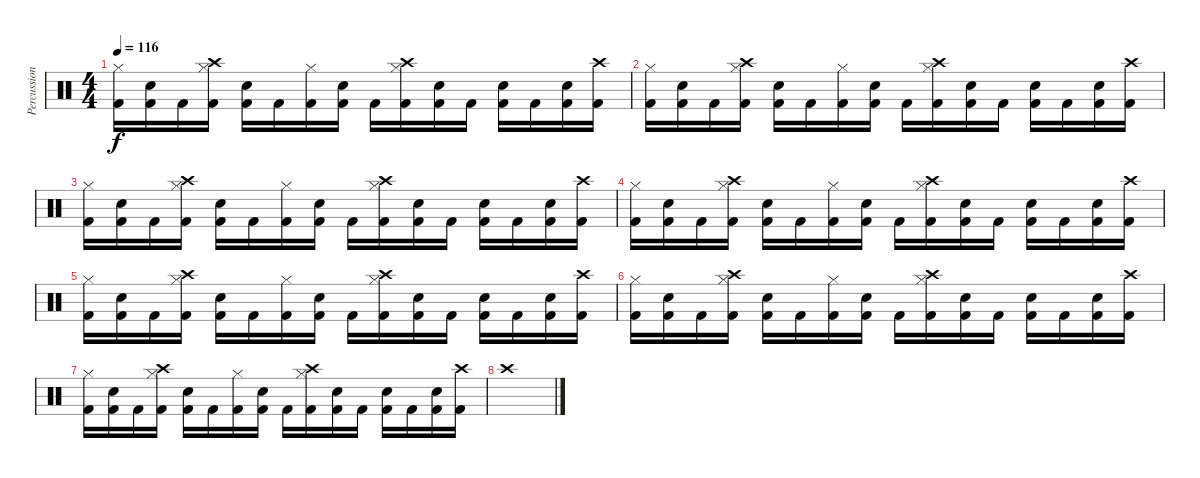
\track ("Percussion" "Percussion") {instrument percussion}
\staff {score}
\articulation defaults
\ts (4 4)
\tempo 116
\clef neutral
\ks c
("Hi-Hat (closed)" "Kick (hit) 2").16{dy f} ("Electric Snare (hit)" "Kick (hit) 2").16 "Kick (hit) 2".16 ("Crash high (hit)" "Hi-Hat (closed)" "Kick (hit) 2").16 ("Electric Snare (hit)" "Kick (hit) 2").16 "Kick (hit) 2".16 ("Hi-Hat (closed)" "Kick (hit) 2").16 ("Electric Snare (hit)" "Kick (hit) 2").16 "Kick (hit) 2".16 ("Crash high (hit)" "Hi-Hat (closed)" "Kick (hit) 2").16 ("Electric Snare (hit)" "Kick (hit) 2").16 "Kick (hit) 2".16 ("Electric Snare (hit)" "Kick (hit) 2").16 "Kick (hit) 2".16 ("Electric Snare (hit)" "Kick (hit) 2").16 ("Crash high (hit)" "Kick (hit) 2").16 |
("Hi-Hat (closed)" "Kick (hit) 2").16 ("Electric Snare (hit)" "Kick (hit) 2").16 "Kick (hit) 2".16 ("Crash high (hit)" "Hi-Hat (closed)" "Kick (hit) 2").16 ("Electric Snare (hit)" "Kick (hit) 2").16 "Kick (hit) 2".16 ("Hi-Hat (closed)" "Kick (hit) 2").16 ("Electric Snare (hit)" "Kick (hit) 2").16 "Kick (hit) 2".16 ("Crash high (hit)" "Hi-Hat (closed)" "Kick (hit) 2").16 ("Electric Snare (hit)" "Kick (hit) 2").16 "Kick (hit) 2".16 ("Electric Snare (hit)" "Kick (hit) 2").16 "Kick (hit) 2".16 ("Electric Snare (hit)" "Kick (hit) 2").16 ("Crash high (hit)" "Kick (hit) 2").16 |
("Hi-Hat (closed)" "Kick (hit) 2").16 ("Electric Snare (hit)" "Kick (hit) 2").16 "Kick (hit) 2".16 ("Crash high (hit)" "Hi-Hat (closed)" "Kick (hit) 2").16 ("Electric Snare (hit)" "Kick (hit) 2").16 "Kick (hit) 2".16 ("Hi-Hat (closed)" "Kick (hit) 2").16 ("Electric Snare (hit)" "Kick (hit) 2").16 "Kick (hit) 2".16 ("Crash high (hit)" "Hi-Hat (closed)" "Kick (hit) 2").16 ("Electric Snare (hit)" "Kick (hit) 2").16 "Kick (hit) 2".16 ("Electric Snare (hit)" "Kick (hit) 2").16 "Kick (hit) 2".16 ("Electric Snare (hit)" "Kick (hit) 2").16 ("Crash high (hit)" "Kick (hit) 2").16 |
("Hi-Hat (closed)" "Kick (hit) 2").16 ("Electric Snare (hit)" "Kick (hit) 2").16 "Kick (hit) 2".16 ("Crash high (hit)" "Hi-Hat (closed)" "Kick (hit) 2").16 ("Electric Snare (hit)" "Kick (hit) 2").16 "Kick (hit) 2".16 ("Hi-Hat (closed)" "Kick (hit) 2").16 ("Electric Snare (hit)" "Kick (hit) 2").16 "Kick (hit) 2".16 ("Crash high (hit)" "Hi-Hat (closed)" "Kick (hit) 2").16 ("Electric Snare (hit)" "Kick (hit) 2").16 "Kick (hit) 2".16 ("Electric Snare (hit)" "Kick (hit) 2").16 "Kick (hit) 2".16 ("Electric Snare (hit)" "Kick (hit) 2").16 ("Crash high (hit)" "Kick (hit) 2").16 |
("Hi-Hat (closed)" "Kick (hit) 2").16 ("Electric Snare (hit)" "Kick (hit) 2").16 "Kick (hit) 2".16 ("Crash high (hit)" "Hi-Hat (closed)" "Kick (hit) 2").16 ("Electric Snare (hit)" "Kick (hit) 2").16 "Kick (hit) 2".16 ("Hi-Hat (closed)" "Kick (hit) 2").16 ("Electric Snare (hit)" "Kick (hit) 2").16 "Kick (hit) 2".16 ("Crash high (hit)" "Hi-Hat (closed)" "Kick (hit) 2").16 ("Electric Snare (hit)" "Kick (hit) 2").16 "Kick (hit) 2".16 ("Electric Snare (hit)" "Kick (hit) 2").16 "Kick (hit) 2".16 ("Electric Snare (hit)" "Kick (hit) 2").16 ("Crash high (hit)" "Kick (hit) 2").16 |
("Hi-Hat (closed)" "Kick (hit) 2").16 ("Electric Snare (hit)" "Kick (hit) 2").16 "Kick (hit) 2".16 ("Crash high (hit)" "Hi-Hat (closed)" "Kick (hit) 2").16 ("Electric Snare (hit)" "Kick (hit) 2").16 "Kick (hit) 2".16 ("Hi-Hat (closed)" "Kick (hit) 2").16 ("Electric Snare (hit)" "Kick (hit) 2").16 "Kick (hit) 2".16 ("Crash high (hit)" "Hi-Hat (closed)" "Kick (hit) 2").16 ("Electric Snare (hit)" "Kick (hit) 2").16 "Kick (hit) 2".16 ("Electric Snare (hit)" "Kick (hit) 2").16 "Kick (hit) 2".16 ("Electric Snare (hit)" "Kick (hit) 2").16 ("Crash high (hit)" "Kick (hit) 2").16 |
("Hi-Hat (closed)" "Kick (hit) 2").16 ("Electric Snare (hit)" "Kick (hit) 2").16 "Kick (hit) 2".16 ("Crash high (hit)" "Hi-Hat (closed)" "Kick (hit) 2").16 ("Electric Snare (hit)" "Kick (hit) 2").16 "Kick (hit) 2".16 ("Hi-Hat (closed)" "Kick (hit) 2").16 ("Electric Snare (hit)" "Kick (hit) 2").16 "Kick (hit) 2".16 ("Crash high (hit)" "Hi-Hat (closed)" "Kick (hit) 2").16 ("Electric Snare (hit)" "Kick (hit) 2").16 "Kick (hit) 2".16 ("Electric Snare (hit)" "Kick (hit) 2").16 "Kick (hit) 2".16 ("Electric Snare (hit)" "Kick (hit) 2").16 ("Crash high (hit)" "Kick (hit) 2").16 |
"Crash high (hit)".1
